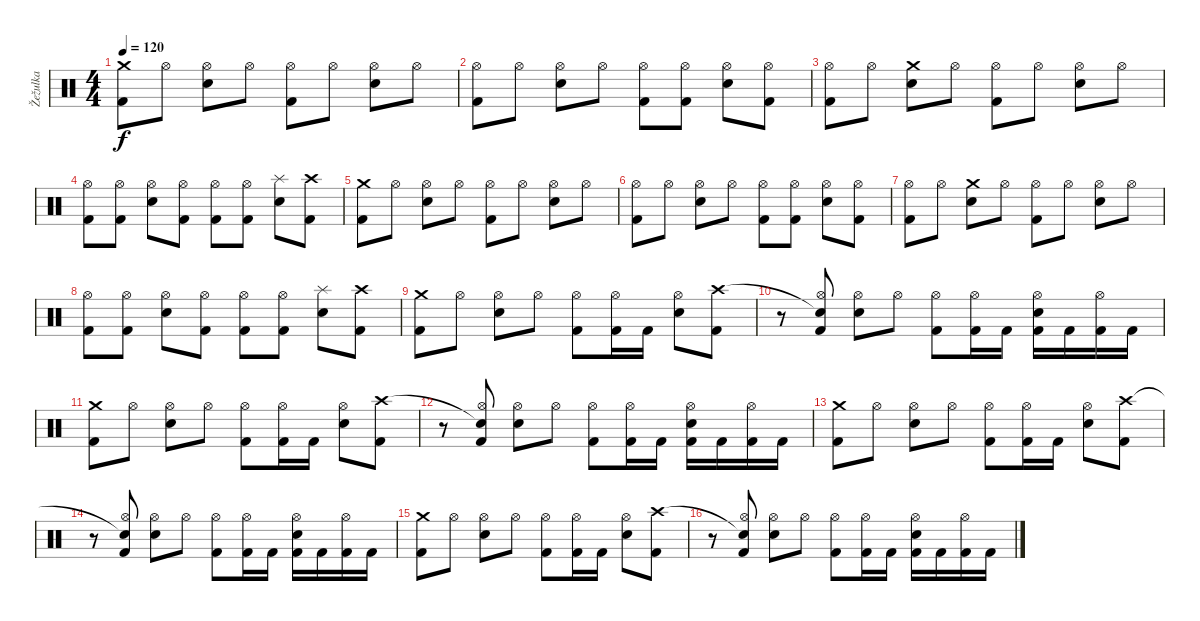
\track ("Žežulka" "Žežulka") {instrument percussion}
\staff {score}
\articulation defaults
\ts (4 4)
\tempo 120
\clef neutral
\ks c
("Crash medium (hit)" "Kick (hit) 2").8{dy f} "Hi-Hat (open)".8 ("Hi-Hat (open)" "Snare (hit) 2").8 "Hi-Hat (open)".8 ("Hi-Hat (open)" "Kick (hit) 2").8 "Hi-Hat (open)".8 ("Hi-Hat (open)" "Snare (hit) 2").8 "Hi-Hat (open)".8 |
("Hi-Hat (open)" "Kick (hit) 2").8 "Hi-Hat (open)".8 ("Hi-Hat (open)" "Snare (hit) 2").8 "Hi-Hat (open)".8 ("Hi-Hat (open)" "Kick (hit) 2").8 ("Hi-Hat (open)" "Kick (hit) 2").8 ("Hi-Hat (open)" "Snare (hit) 2").8 ("Hi-Hat (open)" "Kick (hit) 2").8 |
("Hi-Hat (open)" "Kick (hit) 2").8 "Hi-Hat (open)".8 ("Crash medium (hit)" "Snare (hit) 2").8 "Hi-Hat (open)".8 ("Hi-Hat (open)" "Kick (hit) 2").8 "Hi-Hat (open)".8 ("Hi-Hat (open)" "Snare (hit) 2").8 "Hi-Hat (open)".8 |
("Hi-Hat (open)" "Kick (hit) 2").8 ("Hi-Hat (open)" "Kick (hit) 2").8 ("Hi-Hat (open)" "Snare (hit) 2").8 ("Hi-Hat (open)" "Kick (hit) 2").8 ("Hi-Hat (open)" "Kick (hit) 2").8 ("Hi-Hat (open)" "Kick (hit) 2").8 ("Splash (hit)" "Snare (hit) 2").8 ("Crash high (hit)" "Kick (hit) 2").8 |
("Crash medium (hit)" "Kick (hit) 2").8 "Hi-Hat (open)".8 ("Hi-Hat (open)" "Snare (hit) 2").8 "Hi-Hat (open)".8 ("Hi-Hat (open)" "Kick (hit) 2").8 "Hi-Hat (open)".8 ("Hi-Hat (open)" "Snare (hit) 2").8 "Hi-Hat (open)".8 |
("Hi-Hat (open)" "Kick (hit) 2").8 "Hi-Hat (open)".8 ("Hi-Hat (open)" "Snare (hit) 2").8 "Hi-Hat (open)".8 ("Hi-Hat (open)" "Kick (hit) 2").8 ("Hi-Hat (open)" "Kick (hit) 2").8 ("Hi-Hat (open)" "Snare (hit) 2").8 ("Hi-Hat (open)" "Kick (hit) 2").8 |
("Hi-Hat (open)" "Kick (hit) 2").8 "Hi-Hat (open)".8 ("Crash medium (hit)" "Snare (hit) 2").8 "Hi-Hat (open)".8 ("Hi-Hat (open)" "Kick (hit) 2").8 "Hi-Hat (open)".8 ("Hi-Hat (open)" "Snare (hit) 2").8 "Hi-Hat (open)".8 |
("Hi-Hat (open)" "Kick (hit) 2").8 ("Hi-Hat (open)" "Kick (hit) 2").8 ("Hi-Hat (open)" "Snare (hit) 2").8 ("Hi-Hat (open)" "Kick (hit) 2").8 ("Hi-Hat (open)" "Kick (hit) 2").8 ("Hi-Hat (open)" "Kick (hit) 2").8 ("Splash (hit)" "Snare (hit) 2").8 ("Crash high (hit)" "Kick (hit) 2").8 |
("Crash medium (hit)" "Kick (hit) 2").8 "Hi-Hat (open)".8 ("Hi-Hat (open)" "Snare (hit) 2").8 "Hi-Hat (open)".8 ("Hi-Hat (open)" "Kick (hit) 2").8 ("Hi-Hat (open)" "Kick (hit) 2").16 "Kick (hit) 2".16 ("Hi-Hat (open)" "Snare (hit) 2").8 ("Crash high (hit)" "Kick (hit) 2").8 |
r.8 ("Snare (hit)"{t} "Hi-Hat (open)" "Kick (hit) 2").8 ("Hi-Hat (open)" "Snare (hit) 2").8 "Hi-Hat (open)".8 ("Hi-Hat (open)" "Kick (hit) 2").8 ("Hi-Hat (open)" "Kick (hit) 2").16 "Kick (hit) 2".16 ("Hi-Hat (open)" "Snare (hit) 2" "Kick (hit) 2").16 "Kick (hit) 2".16 ("Hi-Hat (open)" "Kick (hit) 2").16 "Kick (hit) 2".16 |
("Crash medium (hit)" "Kick (hit) 2").8 "Hi-Hat (open)".8 ("Hi-Hat (open)" "Snare (hit) 2").8 "Hi-Hat (open)".8 ("Hi-Hat (open)" "Kick (hit) 2").8 ("Hi-Hat (open)" "Kick (hit) 2").16 "Kick (hit) 2".16 ("Hi-Hat (open)" "Snare (hit) 2").8 ("Crash high (hit)" "Kick (hit) 2").8 |
r.8 ("Snare (hit)"{t} "Hi-Hat (open)" "Kick (hit) 2").8 ("Hi-Hat (open)" "Snare (hit) 2").8 "Hi-Hat (open)".8 ("Hi-Hat (open)" "Kick (hit) 2").8 ("Hi-Hat (open)" "Kick (hit) 2").16 "Kick (hit) 2".16 ("Hi-Hat (open)" "Snare (hit) 2" "Kick (hit) 2").16 "Kick (hit) 2".16 ("Hi-Hat (open)" "Kick (hit) 2").16 "Kick (hit) 2".16 |
("Crash medium (hit)" "Kick (hit) 2").8 "Hi-Hat (open)".8 ("Hi-Hat (open)" "Snare (hit) 2").8 "Hi-Hat (open)".8 ("Hi-Hat (open)" "Kick (hit) 2").8 ("Hi-Hat (open)" "Kick (hit) 2").16 "Kick (hit) 2".16 ("Hi-Hat (open)" "Snare (hit) 2").8 ("Crash high (hit)" "Kick (hit) 2").8 |
r.8 ("Snare (hit)"{t} "Hi-Hat (open)" "Kick (hit) 2").8 ("Hi-Hat (open)" "Snare (hit) 2").8 "Hi-Hat (open)".8 ("Hi-Hat (open)" "Kick (hit) 2").8 ("Hi-Hat (open)" "Kick (hit) 2").16 "Kick (hit) 2".16 ("Hi-Hat (open)" "Snare (hit) 2" "Kick (hit) 2").16 "Kick (hit) 2".16 ("Hi-Hat (open)" "Kick (hit) 2").16 "Kick (hit) 2".16 |
("Crash medium (hit)" "Kick (hit) 2").8 "Hi-Hat (open)".8 ("Hi-Hat (open)" "Snare (hit) 2").8 "Hi-Hat (open)".8 ("Hi-Hat (open)" "Kick (hit) 2").8 ("Hi-Hat (open)" "Kick (hit) 2").16 "Kick (hit) 2".16 ("Hi-Hat (open)" "Snare (hit) 2").8 ("Crash high (hit)" "Kick (hit) 2").8 |
r.8 ("Snare (hit)"{t} "Hi-Hat (open)" "Kick (hit) 2").8 ("Hi-Hat (open)" "Snare (hit) 2").8 "Hi-Hat (open)".8 ("Hi-Hat (open)" "Kick (hit) 2").8 ("Hi-Hat (open)" "Kick (hit) 2").16 "Kick (hit) 2".16 ("Hi-Hat (open)" "Snare (hit) 2" "Kick (hit) 2").16 "Kick (hit) 2".16 ("Hi-Hat (open)" "Kick (hit) 2").16 "Kick (hit) 2".16
